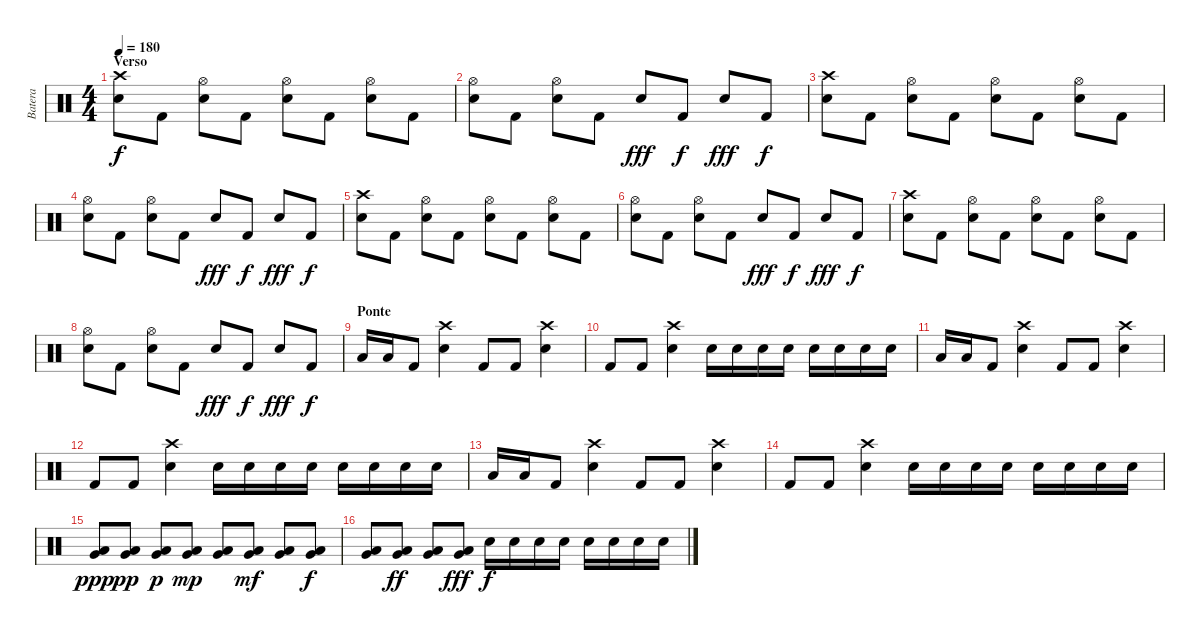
\track ("Batera" "Batera") {instrument percussion}
\staff {score}
\articulation defaults
\ts (4 4)
\section ("" "Verso")
\tempo 180
\clef neutral
\ks c
("Crash high (hit)" "Snare (hit) 2").8{dy f} "Kick (hit) 2".8 ("Hi-Hat (open)" "Snare (hit) 2").8 "Kick (hit) 2".8 ("Hi-Hat (open)" "Snare (hit) 2").8 "Kick (hit) 2".8 ("Hi-Hat (open)" "Snare (hit) 2").8 "Kick (hit) 2".8 |
("Hi-Hat (open)" "Snare (hit) 2").8 "Kick (hit) 2".8 ("Hi-Hat (open)" "Snare (hit) 2").8 "Kick (hit) 2".8 "Snare (hit) 2".8{dy fff} "Kick (hit) 2".8{dy f} "Snare (hit) 2".8{dy fff} "Kick (hit) 2".8{dy f} |
("Crash high (hit)" "Snare (hit) 2").8 "Kick (hit) 2".8 ("Hi-Hat (open)" "Snare (hit) 2").8 "Kick (hit) 2".8 ("Hi-Hat (open)" "Snare (hit) 2").8 "Kick (hit) 2".8 ("Hi-Hat (open)" "Snare (hit) 2").8 "Kick (hit) 2".8 |
("Hi-Hat (open)" "Snare (hit) 2").8 "Kick (hit) 2".8 ("Hi-Hat (open)" "Snare (hit) 2").8 "Kick (hit) 2".8 "Snare (hit) 2".8{dy fff} "Kick (hit) 2".8{dy f} "Snare (hit) 2".8{dy fff} "Kick (hit) 2".8{dy f} |
("Crash high (hit)" "Snare (hit) 2").8 "Kick (hit) 2".8 ("Hi-Hat (open)" "Snare (hit) 2").8 "Kick (hit) 2".8 ("Hi-Hat (open)" "Snare (hit) 2").8 "Kick (hit) 2".8 ("Hi-Hat (open)" "Snare (hit) 2").8 "Kick (hit) 2".8 |
("Hi-Hat (open)" "Snare (hit) 2").8 "Kick (hit) 2".8 ("Hi-Hat (open)" "Snare (hit) 2").8 "Kick (hit) 2".8 "Snare (hit) 2".8{dy fff} "Kick (hit) 2".8{dy f} "Snare (hit) 2".8{dy fff} "Kick (hit) 2".8{dy f} |
("Crash high (hit)" "Snare (hit) 2").8 "Kick (hit) 2".8 ("Hi-Hat (open)" "Snare (hit) 2").8 "Kick (hit) 2".8 ("Hi-Hat (open)" "Snare (hit) 2").8 "Kick (hit) 2".8 ("Hi-Hat (open)" "Snare (hit) 2").8 "Kick (hit) 2".8 |
("Hi-Hat (open)" "Snare (hit) 2").8 "Kick (hit) 2".8 ("Hi-Hat (open)" "Snare (hit) 2").8 "Kick (hit) 2".8 "Snare (hit) 2".8{dy fff} "Kick (hit) 2".8{dy f} "Snare (hit) 2".8{dy fff} "Kick (hit) 2".8{dy f} |
\section ("" "Ponte")
"Low Tom (hit)".16 "Low Tom (hit)".16 "Kick (hit) 2".8 ("Crash high (hit)" "Snare (hit) 2").4 "Kick (hit) 2".8 "Kick (hit) 2".8 ("Crash high (hit)" "Snare (hit) 2").4 |
"Kick (hit) 2".8 "Kick (hit) 2".8 ("Crash high (hit)" "Snare (hit) 2").4 "Snare (hit) 2".16 "Snare (hit) 2".16 "Snare (hit) 2".16 "Snare (hit) 2".16 "Snare (hit) 2".16 "Snare (hit) 2".16 "Snare (hit) 2".16 "Snare (hit) 2".16 |
"Low Tom (hit)".16 "Low Tom (hit)".16 "Kick (hit) 2".8 ("Crash high (hit)" "Snare (hit) 2").4 "Kick (hit) 2".8 "Kick (hit) 2".8 ("Crash high (hit)" "Snare (hit) 2").4 |
"Kick (hit) 2".8 "Kick (hit) 2".8 ("Crash high (hit)" "Snare (hit) 2").4 "Snare (hit) 2".16 "Snare (hit) 2".16 "Snare (hit) 2".16 "Snare (hit) 2".16 "Snare (hit) 2".16 "Snare (hit) 2".16 "Snare (hit) 2".16 "Snare (hit) 2".16 |
"Low Tom (hit)".16 "Low Tom (hit)".16 "Kick (hit) 2".8 ("Crash high (hit)" "Snare (hit) 2").4 "Kick (hit) 2".8 "Kick (hit) 2".8 ("Crash high (hit)" "Snare (hit) 2").4 |
"Kick (hit) 2".8 "Kick (hit) 2".8 ("Crash high (hit)" "Snare (hit) 2").4 "Snare (hit) 2".16 "Snare (hit) 2".16 "Snare (hit) 2".16 "Snare (hit) 2".16 "Snare (hit) 2".16 "Snare (hit) 2".16 "Snare (hit) 2".16 "Snare (hit) 2".16 |
("Very Low Tom (hit)" "Low Tom (hit)").8{dy ppp} ("Very Low Tom (hit)" "Low Tom (hit)").8{dy pp} ("Very Low Tom (hit)" "Low Tom (hit)").8{dy p} ("Very Low Tom (hit)" "Low Tom (hit)").8{dy mp} ("Very Low Tom (hit)" "Low Tom (hit)").8 ("Very Low Tom (hit)" "Low Tom (hit)").8{dy mf} ("Very Low Tom (hit)" "Low Tom (hit)").8 ("Very Low Tom (hit)" "Low Tom (hit)").8{dy f} |
("Very Low Tom (hit)" "Low Tom (hit)").8 ("Very Low Tom (hit)" "Low Tom (hit)").8{dy ff} ("Very Low Tom (hit)" "Low Tom (hit)").8 ("Very Low Tom (hit)" "Low Tom (hit)").8{dy fff} "Snare (hit) 2".16{dy f} "Snare (hit) 2".16 "Snare (hit) 2".16 "Snare (hit) 2".16 "Snare (hit) 2".16 "Snare (hit) 2".16 "Snare (hit) 2".16 "Snare (hit) 2".16
